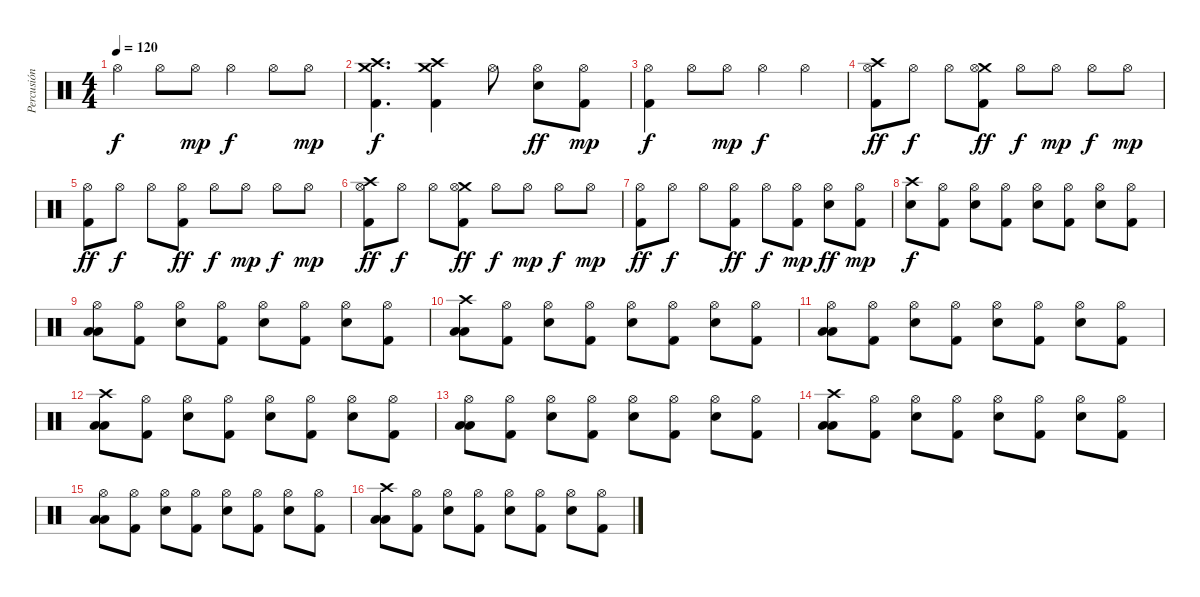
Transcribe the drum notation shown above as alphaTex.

\track ("Percusión" "Percusión") {instrument percussion}
\staff {score}
\articulation defaults
\ts (4 4)
\tempo 120
\clef neutral
\ks c "Hi-Hat (open)".4{dy f} "Hi-Hat (open)".8 "Hi-Hat (open)".8{dy mp} "Hi-Hat (open)".4{dy f} "Hi-Hat (open)".8 "Hi-Hat (open)".8{dy mp}
|
("Crash high (hit)" "Crash medium (hit)" "Kick (hit) 2").4{d dy f} ("Crash high (hit)" "Crash medium (hit)" "Kick (hit) 2").4 "Hi-Hat (open)".8 ("Hi-Hat (open)" "Electric Snare (hit)").8{dy ff} ("Hi-Hat (open)" "Kick (hit) 2").8{dy mp} |
("Hi-Hat (open)" "Kick (hit) 2").4{dy f} "Hi-Hat (open)".8 "Hi-Hat (open)".8{dy mp} "Hi-Hat (open)".4{dy f} "Hi-Hat (open)".4 |
("Crash high (hit)" "Hi-Hat (open)" "Kick (hit) 2").8{dy ff} "Hi-Hat (open)".8{dy f} "Hi-Hat (open)".8 ("Crash medium (hit)" "Hi-Hat (open)" "Kick (hit) 2").8{dy ff} "Hi-Hat (open)".8{dy f} "Hi-Hat (open)".8{dy mp} "Hi-Hat (open)".8{dy f} "Hi-Hat (open)".8{dy mp} |
("Hi-Hat (open)" "Kick (hit) 2").8{dy ff} "Hi-Hat (open)".8{dy f} "Hi-Hat (open)".8 ("Hi-Hat (open)" "Kick (hit) 2").8{dy ff} "Hi-Hat (open)".8{dy f} "Hi-Hat (open)".8{dy mp} "Hi-Hat (open)".8{dy f} "Hi-Hat (open)".8{dy mp} |
("Crash high (hit)" "Hi-Hat (open)" "Kick (hit) 2").8{dy ff} "Hi-Hat (open)".8{dy f} "Hi-Hat (open)".8 ("Crash medium (hit)" "Hi-Hat (open)" "Kick (hit) 2").8{dy ff} "Hi-Hat (open)".8{dy f} "Hi-Hat (open)".8{dy mp} "Hi-Hat (open)".8{dy f} "Hi-Hat (open)".8{dy mp} |
("Hi-Hat (open)" "Kick (hit) 2").8{dy ff} "Hi-Hat (open)".8{dy f} "Hi-Hat (open)".8 ("Hi-Hat (open)" "Kick (hit) 2").8{dy ff} "Hi-Hat (open)".8{dy f} ("Hi-Hat (open)" "Kick (hit) 2").8{dy mp} ("Hi-Hat (open)" "Electric Snare (hit)").8{dy ff} ("Hi-Hat (open)" "Kick (hit) 2").8{dy mp} |
("Crash high (hit)" "Electric Snare (hit)").8{dy f} ("Hi-Hat (open)" "Kick (hit) 2").8 ("Hi-Hat (open)" "Electric Snare (hit)").8 ("Hi-Hat (open)" "Kick (hit) 2").8 ("Hi-Hat (open)" "Electric Snare (hit)").8 ("Hi-Hat (open)" "Kick (hit) 2").8 ("Hi-Hat (open)" "Electric Snare (hit)").8 ("Hi-Hat (open)" "Kick (hit) 2").8 |
("Hi-Hat (open)" "Low Tom (hit)" "Low Floor Tom (hit)").8 ("Hi-Hat (open)" "Kick (hit) 2").8 ("Hi-Hat (open)" "Electric Snare (hit)").8 ("Hi-Hat (open)" "Kick (hit) 2").8 ("Hi-Hat (open)" "Electric Snare (hit)").8 ("Hi-Hat (open)" "Kick (hit) 2").8 ("Hi-Hat (open)" "Electric Snare (hit)").8 ("Hi-Hat (open)" "Kick (hit) 2").8 |
("Crash high (hit)" "Low Tom (hit)" "Low Floor Tom (hit)").8 ("Hi-Hat (open)" "Kick (hit) 2").8 ("Hi-Hat (open)" "Electric Snare (hit)").8 ("Hi-Hat (open)" "Kick (hit) 2").8 ("Hi-Hat (open)" "Electric Snare (hit)").8 ("Hi-Hat (open)" "Kick (hit) 2").8 ("Hi-Hat (open)" "Electric Snare (hit)").8 ("Hi-Hat (open)" "Kick (hit) 2").8 |
("Hi-Hat (open)" "Low Tom (hit)" "Low Floor Tom (hit)").8 ("Hi-Hat (open)" "Kick (hit) 2").8 ("Hi-Hat (open)" "Electric Snare (hit)").8 ("Hi-Hat (open)" "Kick (hit) 2").8 ("Hi-Hat (open)" "Electric Snare (hit)").8 ("Hi-Hat (open)" "Kick (hit) 2").8 ("Hi-Hat (open)" "Electric Snare (hit)").8 ("Hi-Hat (open)" "Kick (hit) 2").8 |
("Crash high (hit)" "Low Tom (hit)" "Low Floor Tom (hit)").8 ("Hi-Hat (open)" "Kick (hit) 2").8 ("Hi-Hat (open)" "Electric Snare (hit)").8 ("Hi-Hat (open)" "Kick (hit) 2").8 ("Hi-Hat (open)" "Electric Snare (hit)").8 ("Hi-Hat (open)" "Kick (hit) 2").8 ("Hi-Hat (open)" "Electric Snare (hit)").8 ("Hi-Hat (open)" "Kick (hit) 2").8 |
("Hi-Hat (open)" "Low Tom (hit)" "Low Floor Tom (hit)").8 ("Hi-Hat (open)" "Kick (hit) 2").8 ("Hi-Hat (open)" "Electric Snare (hit)").8 ("Hi-Hat (open)" "Kick (hit) 2").8 ("Hi-Hat (open)" "Electric Snare (hit)").8 ("Hi-Hat (open)" "Kick (hit) 2").8 ("Hi-Hat (open)" "Electric Snare (hit)").8 ("Hi-Hat (open)" "Kick (hit) 2").8 |
("Crash high (hit)" "Low Tom (hit)" "Low Floor Tom (hit)").8 ("Hi-Hat (open)" "Kick (hit) 2").8 ("Hi-Hat (open)" "Electric Snare (hit)").8 ("Hi-Hat (open)" "Kick (hit) 2").8 ("Hi-Hat (open)" "Electric Snare (hit)").8 ("Hi-Hat (open)" "Kick (hit) 2").8 ("Hi-Hat (open)" "Electric Snare (hit)").8 ("Hi-Hat (open)" "Kick (hit) 2").8 |
("Hi-Hat (open)" "Low Tom (hit)" "Low Floor Tom (hit)").8 ("Hi-Hat (open)" "Kick (hit) 2").8 ("Hi-Hat (open)" "Electric Snare (hit)").8 ("Hi-Hat (open)" "Kick (hit) 2").8 ("Hi-Hat (open)" "Electric Snare (hit)").8 ("Hi-Hat (open)" "Kick (hit) 2").8 ("Hi-Hat (open)" "Electric Snare (hit)").8 ("Hi-Hat (open)" "Kick (hit) 2").8 |
("Crash high (hit)" "Low Tom (hit)" "Low Floor Tom (hit)").8 ("Hi-Hat (open)" "Kick (hit) 2").8 ("Hi-Hat (open)" "Electric Snare (hit)").8 ("Hi-Hat (open)" "Kick (hit) 2").8 ("Hi-Hat (open)" "Electric Snare (hit)").8 ("Hi-Hat (open)" "Kick (hit) 2").8 ("Hi-Hat (open)" "Electric Snare (hit)").8 ("Hi-Hat (open)" "Kick (hit) 2").8
